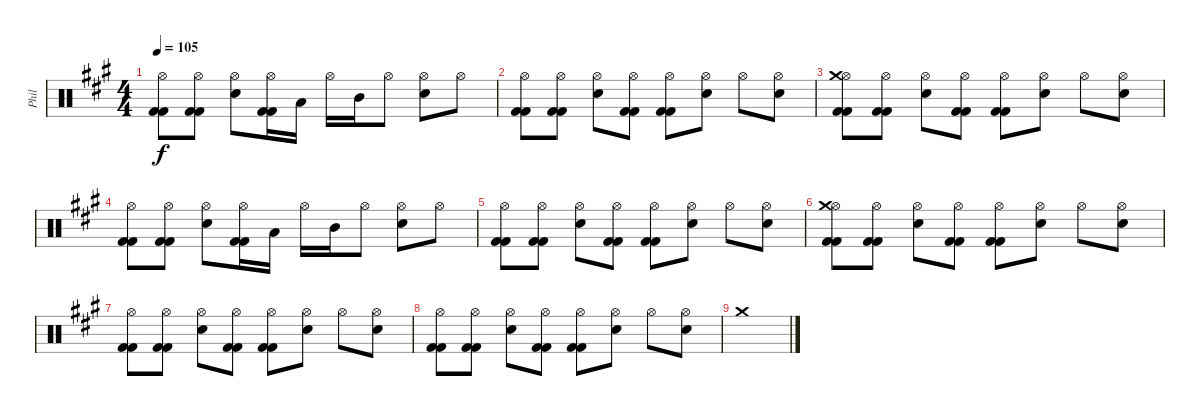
\track ("Phil" "Phil") {instrument percussion}
\staff {score}
\articulation defaults
\ts (4 4)
\tempo 105
\clef neutral
\ks a
("Kick (hit) 2" "Hi-Hat (open)" "Kick (hit) 2").8{dy f} ("Kick (hit) 2" "Hi-Hat (open)" "Kick (hit) 2").8 ("Hi-Hat (open)" "Electric Snare (hit)").8 ("Kick (hit) 2" "Hi-Hat (open)" "Kick (hit) 2").16 "Low Tom (hit)".16 "Hi-Hat (open)".16 "Mid Tom (hit)".16 "Hi-Hat (open)".8 ("Hi-Hat (open)" "Electric Snare (hit)").8 "Hi-Hat (open)".8 |
("Kick (hit) 2" "Hi-Hat (open)" "Kick (hit) 2").8 ("Kick (hit) 2" "Hi-Hat (open)" "Kick (hit) 2").8 ("Hi-Hat (open)" "Electric Snare (hit)").8 ("Kick (hit) 2" "Hi-Hat (open)" "Kick (hit) 2").8 ("Kick (hit) 2" "Hi-Hat (open)" "Kick (hit) 2").8 ("Hi-Hat (open)" "Electric Snare (hit)").8 "Hi-Hat (open)".8 ("Hi-Hat (open)" "Electric Snare (hit)").8 |
("Kick (hit) 2" "Hi-Hat (open)" "Kick (hit) 2" "Crash medium (hit)").8 ("Kick (hit) 2" "Hi-Hat (open)" "Kick (hit) 2").8 ("Hi-Hat (open)" "Electric Snare (hit)").8 ("Kick (hit) 2" "Hi-Hat (open)" "Kick (hit) 2").8 ("Kick (hit) 2" "Hi-Hat (open)" "Kick (hit) 2").8 ("Hi-Hat (open)" "Electric Snare (hit)").8 "Hi-Hat (open)".8 ("Hi-Hat (open)" "Electric Snare (hit)").8 |
("Kick (hit) 2" "Hi-Hat (open)" "Kick (hit) 2").8 ("Kick (hit) 2" "Hi-Hat (open)" "Kick (hit) 2").8 ("Hi-Hat (open)" "Electric Snare (hit)").8 ("Kick (hit) 2" "Hi-Hat (open)" "Kick (hit) 2").16 "Low Tom (hit)".16 "Hi-Hat (open)".16 "Mid Tom (hit)".16 "Hi-Hat (open)".8 ("Hi-Hat (open)" "Electric Snare (hit)").8 "Hi-Hat (open)".8 |
("Kick (hit) 2" "Hi-Hat (open)" "Kick (hit) 2").8 ("Kick (hit) 2" "Hi-Hat (open)" "Kick (hit) 2").8 ("Hi-Hat (open)" "Electric Snare (hit)").8 ("Kick (hit) 2" "Hi-Hat (open)" "Kick (hit) 2").8 ("Kick (hit) 2" "Hi-Hat (open)" "Kick (hit) 2").8 ("Hi-Hat (open)" "Electric Snare (hit)").8 "Hi-Hat (open)".8 ("Hi-Hat (open)" "Electric Snare (hit)").8 |
("Kick (hit) 2" "Hi-Hat (open)" "Kick (hit) 2" "Crash medium (hit)").8 ("Kick (hit) 2" "Hi-Hat (open)" "Kick (hit) 2").8 ("Hi-Hat (open)" "Electric Snare (hit)").8 ("Kick (hit) 2" "Hi-Hat (open)" "Kick (hit) 2").8 ("Kick (hit) 2" "Hi-Hat (open)" "Kick (hit) 2").8 ("Hi-Hat (open)" "Electric Snare (hit)").8 "Hi-Hat (open)".8 ("Hi-Hat (open)" "Electric Snare (hit)").8 |
("Kick (hit) 2" "Hi-Hat (open)" "Kick (hit) 2").8 ("Kick (hit) 2" "Hi-Hat (open)" "Kick (hit) 2").8 ("Hi-Hat (open)" "Electric Snare (hit)").8 ("Kick (hit) 2" "Hi-Hat (open)" "Kick (hit) 2").8 ("Kick (hit) 2" "Hi-Hat (open)" "Kick (hit) 2").8 ("Hi-Hat (open)" "Electric Snare (hit)").8 "Hi-Hat (open)".8 ("Hi-Hat (open)" "Electric Snare (hit)").8 |
("Kick (hit) 2" "Hi-Hat (open)" "Kick (hit) 2").8 ("Kick (hit) 2" "Hi-Hat (open)" "Kick (hit) 2").8 ("Hi-Hat (open)" "Electric Snare (hit)").8 ("Kick (hit) 2" "Hi-Hat (open)" "Kick (hit) 2").8 ("Kick (hit) 2" "Hi-Hat (open)" "Kick (hit) 2").8 ("Hi-Hat (open)" "Electric Snare (hit)").8 "Hi-Hat (open)".8 ("Hi-Hat (open)" "Electric Snare (hit)").8 |
"Crash medium (hit)".1
